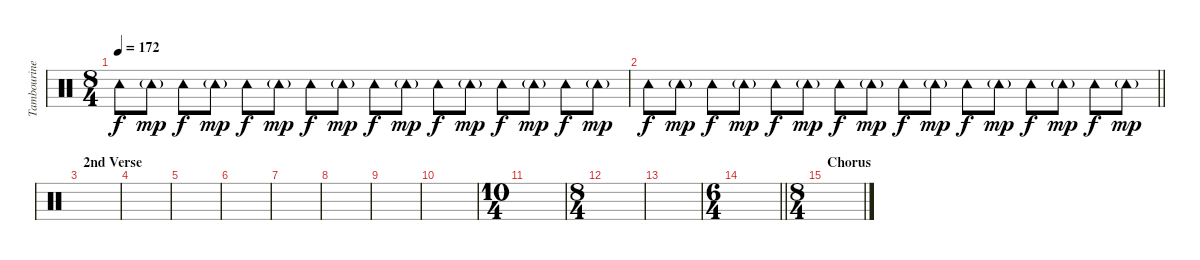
\track ("Tambourine" "Tambourine") {instrument percussion}
\staff {score}
\articulation defaults
\ts (8 4)
\tempo 172
\clef neutral
\ks c "Tambourine (hit)".8{dy f} "Tambourine (hit)"{g}.8{dy mp} "Tambourine (hit)".8{dy f} "Tambourine (hit)"{g}.8{dy mp} "Tambourine (hit)".8{dy f} "Tambourine (hit)"{g}.8{dy mp} "Tambourine (hit)".8{dy f} "Tambourine (hit)"{g}.8{dy mp} "Tambourine (hit)".8{dy f} "Tambourine (hit)"{g}.8{dy mp} "Tambourine (hit)".8{dy f} "Tambourine (hit)"{g}.8{dy mp} "Tambourine (hit)".8{dy f} "Tambourine (hit)"{g}.8{dy mp} "Tambourine (hit)".8{dy f} "Tambourine (hit)"{g}.8{dy mp}
|
\barLineRight lightlight "Tambourine (hit)".8{dy f} "Tambourine (hit)"{g}.8{dy mp} "Tambourine (hit)".8{dy f} "Tambourine (hit)"{g}.8{dy mp} "Tambourine (hit)".8{dy f} "Tambourine (hit)"{g}.8{dy mp} "Tambourine (hit)".8{dy f} "Tambourine (hit)"{g}.8{dy mp} "Tambourine (hit)".8{dy f} "Tambourine (hit)"{g}.8{dy mp} "Tambourine (hit)".8{dy f} "Tambourine (hit)"{g}.8{dy mp} "Tambourine (hit)".8{dy f} "Tambourine (hit)"{g}.8{dy mp} "Tambourine (hit)".8{dy f} "Tambourine (hit)"{g}.8{dy mp}
|
\section ("" "2nd Verse")
|
|
|
|
|
|
|
|
\ts (10 4)
|
\ts (8 4)
|
|
\ts (6 4)
\barLineRight lightlight
|
\ts (8 4)
\section ("" "Chorus")
